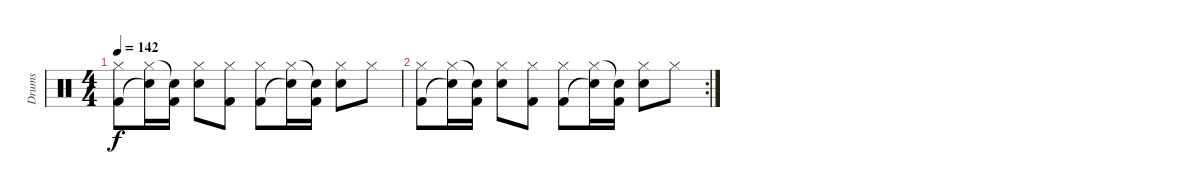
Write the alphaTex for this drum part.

\track ("Drums" "Drums") {instrument percussion}
\staff {score}
\articulation defaults
\ts (4 4)
\tempo 142
\clef neutral
\ks c
("Hi-Hat (closed)" "Kick (hit) 2").8{dy f} ("Hi-Hat (closed)" "Snare (hit)"{t}).16 ("Snare (hit)"{t} "Kick (hit) 2").16 ("Hi-Hat (closed)" "Snare (hit) 2").8 ("Hi-Hat (closed)" "Kick (hit) 2").8 ("Hi-Hat (closed)" "Kick (hit) 2").8 ("Hi-Hat (closed)" "Snare (hit)"{t}).16 ("Snare (hit)"{t} "Kick (hit) 2").16 ("Hi-Hat (closed)" "Snare (hit) 2").8 "Hi-Hat (closed)".8 |
\rc 2
("Hi-Hat (closed)" "Kick (hit) 2").8 ("Hi-Hat (closed)" "Snare (hit)"{t}).16 ("Snare (hit)"{t} "Kick (hit) 2").16 ("Hi-Hat (closed)" "Snare (hit) 2").8 ("Hi-Hat (closed)" "Kick (hit) 2").8 ("Hi-Hat (closed)" "Kick (hit) 2").8 ("Hi-Hat (closed)" "Snare (hit)"{t}).16 ("Snare (hit)"{t} "Kick (hit) 2").16 ("Hi-Hat (closed)" "Snare (hit) 2").8 "Hi-Hat (closed)".8
